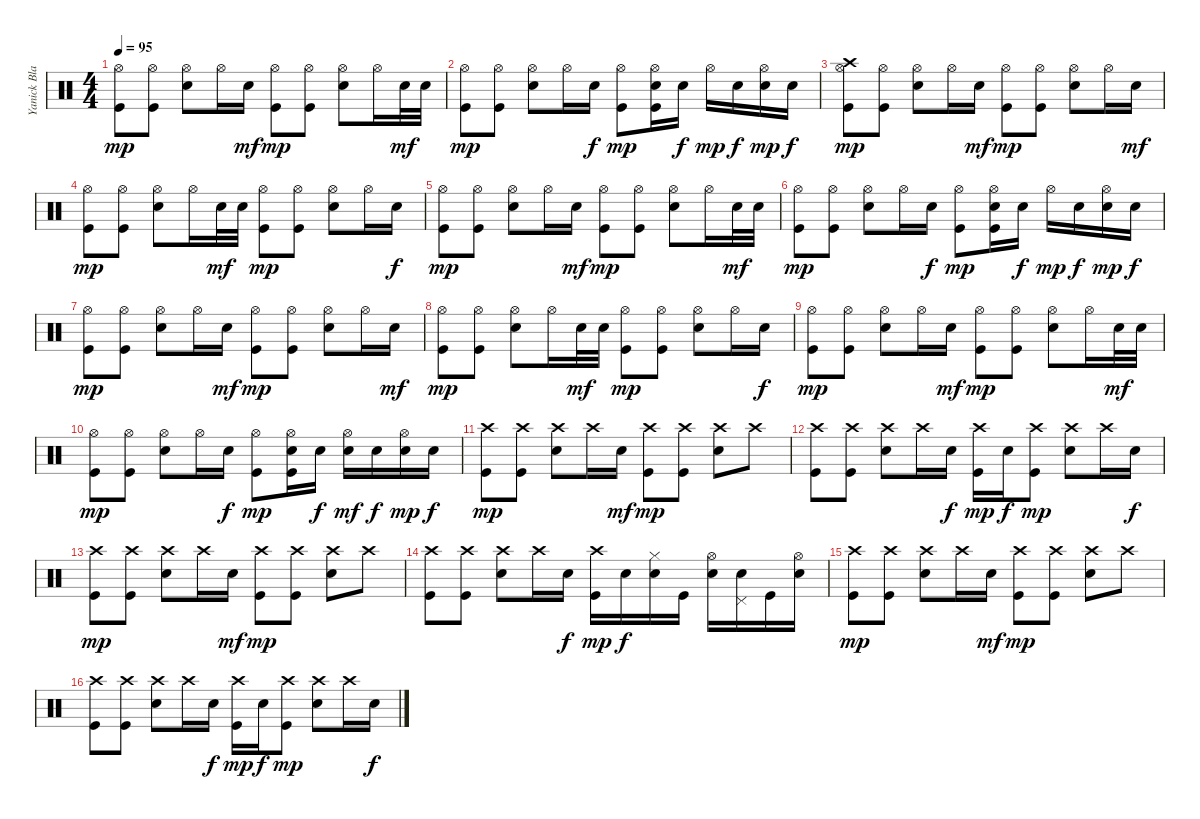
\track ("Yanick Blanchette" "Yanick Bla") {instrument percussion}
\staff {score}
\articulation defaults
\ts (4 4)
\tempo 95
\clef neutral
\ks c
("Hi-Hat (open)" "Kick (hit)").8{dy mp} ("Hi-Hat (open)" "Kick (hit)").8 ("Hi-Hat (open)" "Snare (hit) 2").8 "Hi-Hat (open)".16 "Snare (hit) 2".16{dy mf} ("Hi-Hat (open)" "Kick (hit)").8{dy mp} ("Hi-Hat (open)" "Kick (hit)").8 ("Hi-Hat (open)" "Snare (hit) 2").8 "Hi-Hat (open)".16 "Snare (hit) 2".32{dy mf} "Snare (hit) 2".32 |
("Hi-Hat (open)" "Kick (hit)").8{dy mp} ("Hi-Hat (open)" "Kick (hit)").8 ("Hi-Hat (open)" "Snare (hit) 2").8 "Hi-Hat (open)".16 "Snare (hit) 2".16{dy f} ("Hi-Hat (open)" "Kick (hit)").8{dy mp} ("Hi-Hat (open)" "Snare (hit) 2" "Kick (hit)").16 "Snare (hit) 2".16{dy f} "Hi-Hat (open)".16{dy mp} "Snare (hit) 2".16{dy f} ("Hi-Hat (open)" "Snare (hit) 2").16{dy mp} "Snare (hit) 2".16{dy f} |
("Crash high (hit)" "Hi-Hat (open)" "Kick (hit)").8{dy mp} ("Hi-Hat (open)" "Kick (hit)").8 ("Hi-Hat (open)" "Snare (hit) 2").8 "Hi-Hat (open)".16 "Snare (hit) 2".16{dy mf} ("Hi-Hat (open)" "Kick (hit)").8{dy mp} ("Hi-Hat (open)" "Kick (hit)").8 ("Hi-Hat (open)" "Snare (hit) 2").8 "Hi-Hat (open)".16 "Snare (hit) 2".16{dy mf} |
("Hi-Hat (open)" "Kick (hit)").8{dy mp} ("Hi-Hat (open)" "Kick (hit)").8 ("Hi-Hat (open)" "Snare (hit) 2").8 "Hi-Hat (open)".16 "Snare (hit) 2".32{dy mf} "Snare (hit) 2".32 ("Hi-Hat (open)" "Kick (hit)").8{dy mp} ("Hi-Hat (open)" "Kick (hit)").8 ("Hi-Hat (open)" "Snare (hit) 2").8 "Hi-Hat (open)".16 "Snare (hit) 2".16{dy f} |
("Hi-Hat (open)" "Kick (hit)").8{dy mp} ("Hi-Hat (open)" "Kick (hit)").8 ("Hi-Hat (open)" "Snare (hit) 2").8 "Hi-Hat (open)".16 "Snare (hit) 2".16{dy mf} ("Hi-Hat (open)" "Kick (hit)").8{dy mp} ("Hi-Hat (open)" "Kick (hit)").8 ("Hi-Hat (open)" "Snare (hit) 2").8 "Hi-Hat (open)".16 "Snare (hit) 2".32{dy mf} "Snare (hit) 2".32 |
("Hi-Hat (open)" "Kick (hit)").8{dy mp} ("Hi-Hat (open)" "Kick (hit)").8 ("Hi-Hat (open)" "Snare (hit) 2").8 "Hi-Hat (open)".16 "Snare (hit) 2".16{dy f} ("Hi-Hat (open)" "Kick (hit)").8{dy mp} ("Hi-Hat (open)" "Snare (hit) 2" "Kick (hit)").16 "Snare (hit) 2".16{dy f} "Hi-Hat (open)".16{dy mp} "Snare (hit) 2".16{dy f} ("Hi-Hat (open)" "Snare (hit) 2").16{dy mp} "Snare (hit) 2".16{dy f} |
("Hi-Hat (open)" "Kick (hit)").8{dy mp} ("Hi-Hat (open)" "Kick (hit)").8 ("Hi-Hat (open)" "Snare (hit) 2").8 "Hi-Hat (open)".16 "Snare (hit) 2".16{dy mf} ("Hi-Hat (open)" "Kick (hit)").8{dy mp} ("Hi-Hat (open)" "Kick (hit)").8 ("Hi-Hat (open)" "Snare (hit) 2").8 "Hi-Hat (open)".16 "Snare (hit) 2".16{dy mf} |
("Hi-Hat (open)" "Kick (hit)").8{dy mp} ("Hi-Hat (open)" "Kick (hit)").8 ("Hi-Hat (open)" "Snare (hit) 2").8 "Hi-Hat (open)".16 "Snare (hit) 2".32{dy mf} "Snare (hit) 2".32 ("Hi-Hat (open)" "Kick (hit)").8{dy mp} ("Hi-Hat (open)" "Kick (hit)").8 ("Hi-Hat (open)" "Snare (hit) 2").8 "Hi-Hat (open)".16 "Snare (hit) 2".16{dy f} |
("Hi-Hat (open)" "Kick (hit)").8{dy mp} ("Hi-Hat (open)" "Kick (hit)").8 ("Hi-Hat (open)" "Snare (hit) 2").8 "Hi-Hat (open)".16 "Snare (hit) 2".16{dy mf} ("Hi-Hat (open)" "Kick (hit)").8{dy mp} ("Hi-Hat (open)" "Kick (hit)").8 ("Hi-Hat (open)" "Snare (hit) 2").8 "Hi-Hat (open)".16 "Snare (hit) 2".32{dy mf} "Snare (hit) 2".32 |
("Hi-Hat (open)" "Kick (hit)").8{dy mp} ("Hi-Hat (open)" "Kick (hit)").8 ("Hi-Hat (open)" "Snare (hit) 2").8 "Hi-Hat (open)".16 "Snare (hit) 2".16{dy f} ("Hi-Hat (open)" "Kick (hit)").8{dy mp} ("Hi-Hat (open)" "Snare (hit) 2" "Kick (hit)").16 "Snare (hit) 2".16{dy f} ("Hi-Hat (open)" "Snare (hit) 2").16{dy mf} "Snare (hit) 2".16{dy f} ("Hi-Hat (open)" "Snare (hit) 2").16{dy mp} "Snare (hit) 2".16{dy f} |
("Crash high (hit)" "Kick (hit)").8{dy mp} ("Crash high (hit)" "Kick (hit)").8 ("Crash high (hit)" "Snare (hit) 2").8 "Crash high (hit)".16 "Snare (hit) 2".16{dy mf} ("Crash high (hit)" "Kick (hit)").8{dy mp} ("Crash high (hit)" "Kick (hit)").8 ("Crash high (hit)" "Snare (hit) 2").8 "Crash high (hit)".8 |
("Crash high (hit)" "Kick (hit)").8 ("Crash high (hit)" "Kick (hit)").8 ("Crash high (hit)" "Snare (hit) 2").8 "Crash high (hit)".16 "Snare (hit) 2".16{dy f} ("Crash high (hit)" "Kick (hit)").16{dy mp} "Snare (hit) 2".16{dy f} ("Crash high (hit)" "Kick (hit)").8{dy mp} ("Crash high (hit)" "Snare (hit) 2").8 "Crash high (hit)".16 "Snare (hit) 2".16{dy f} |
("Crash high (hit)" "Kick (hit)").8{dy mp} ("Crash high (hit)" "Kick (hit)").8 ("Crash high (hit)" "Snare (hit) 2").8 "Crash high (hit)".16 "Snare (hit) 2".16{dy mf} ("Crash high (hit)" "Kick (hit)").8{dy mp} ("Crash high (hit)" "Kick (hit)").8 ("Crash high (hit)" "Snare (hit) 2").8 "Crash high (hit)".8 |
("Crash high (hit)" "Kick (hit)").8 ("Crash high (hit)" "Kick (hit)").8 ("Crash high (hit)" "Snare (hit) 2").8 "Crash high (hit)".16 "Snare (hit) 2".16{dy f} ("Crash high (hit)" "Kick (hit)").16{dy mp} "Snare (hit) 2".16{dy f} ("Hi-Hat (closed)" "Snare (hit) 2").16 "Kick (hit)".16 ("Hi-Hat (open)" "Snare (hit) 2").16 ("Pedal Hi-Hat (hit)" "Snare (hit) 2").16 "Kick (hit)".16 ("Hi-Hat (open)" "Snare (hit) 2").16 |
("Crash high (hit)" "Kick (hit)").8{dy mp} ("Crash high (hit)" "Kick (hit)").8 ("Crash high (hit)" "Snare (hit) 2").8 "Crash high (hit)".16 "Snare (hit) 2".16{dy mf} ("Crash high (hit)" "Kick (hit)").8{dy mp} ("Crash high (hit)" "Kick (hit)").8 ("Crash high (hit)" "Snare (hit) 2").8 "Crash high (hit)".8 |
("Crash high (hit)" "Kick (hit)").8 ("Crash high (hit)" "Kick (hit)").8 ("Crash high (hit)" "Snare (hit) 2").8 "Crash high (hit)".16 "Snare (hit) 2".16{dy f} ("Crash high (hit)" "Kick (hit)").16{dy mp} "Snare (hit) 2".16{dy f} ("Crash high (hit)" "Kick (hit)").8{dy mp} ("Crash high (hit)" "Snare (hit) 2").8 "Crash high (hit)".16 "Snare (hit) 2".16{dy f}
